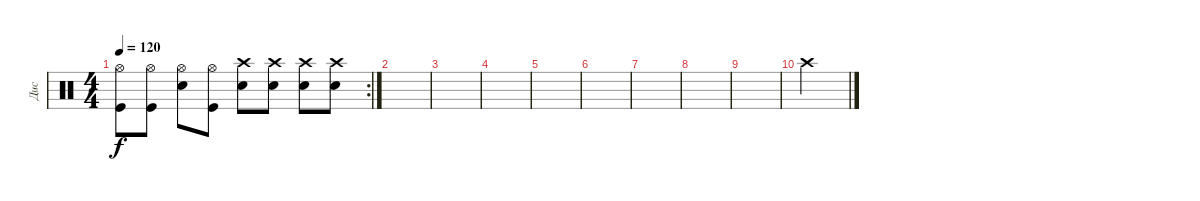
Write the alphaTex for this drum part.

\track ("Дис" "Дис") {instrument percussion}
\staff {score}
\articulation defaults
\rc 2
\ts (4 4)
\tempo 120
\clef neutral
\ks c
("Hi-Hat (open)" "Kick (hit)").8{dy f} ("Hi-Hat (open)" "Kick (hit)").8 ("Hi-Hat (open)" "Electric Snare (hit)").8 ("Hi-Hat (open)" "Kick (hit)").8 ("Crash high (hit)" "Electric Snare (hit)").8 ("Crash high (hit)" "Electric Snare (hit)").8 ("Crash high (hit)" "Electric Snare (hit)").8 ("Crash high (hit)" "Electric Snare (hit)").8 |
|
|
|
|
|
|
|
|
"Crash high (hit)".2
